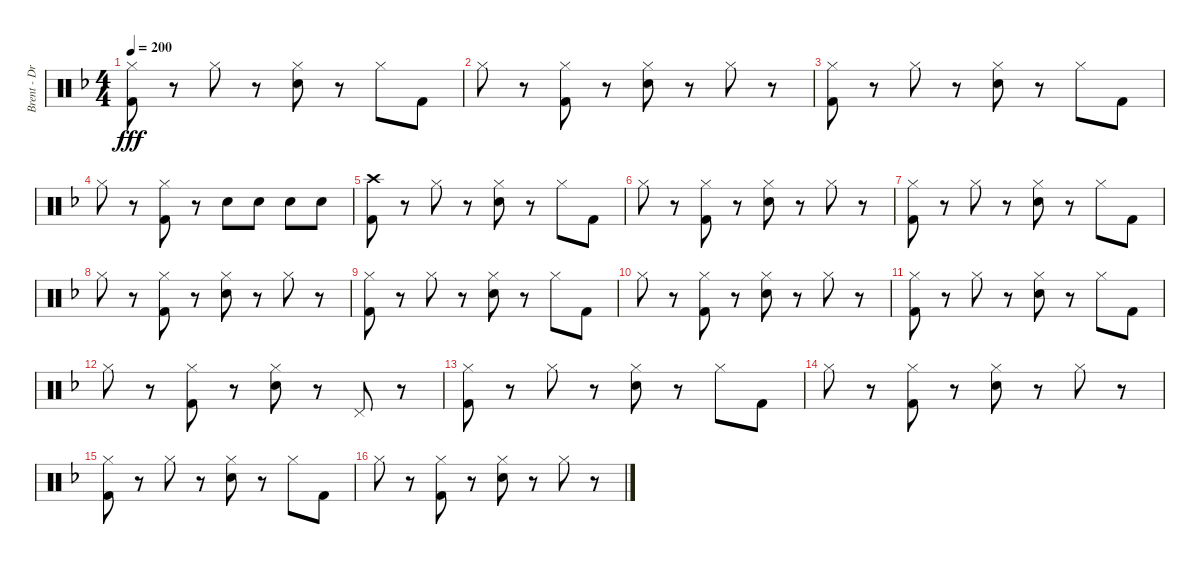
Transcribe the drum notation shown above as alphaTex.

\track ("Brent - Drums" "Brent - Dr") {instrument percussion}
\staff {score}
\articulation defaults
\ts (4 4)
\tempo 200
\clef neutral
\ks dminor
("Hi-Hat (closed)" "Kick (hit) 2").8{dy fff} r.8 "Hi-Hat (closed)".8 r.8 ("Hi-Hat (closed)" "Snare (hit) 2").8 r.8 "Hi-Hat (closed)".8 "Kick (hit) 2".8 |
"Hi-Hat (closed)".8 r.8 ("Hi-Hat (closed)" "Kick (hit) 2").8 r.8 ("Hi-Hat (closed)" "Snare (hit) 2").8 r.8 "Hi-Hat (closed)".8 r.8 |
("Hi-Hat (closed)" "Kick (hit) 2").8 r.8 "Hi-Hat (closed)".8 r.8 ("Hi-Hat (closed)" "Snare (hit) 2").8 r.8 "Hi-Hat (closed)".8 "Kick (hit) 2".8 |
"Hi-Hat (closed)".8 r.8 ("Hi-Hat (closed)" "Kick (hit) 2").8 r.8 "Snare (hit) 2".8 "Snare (hit) 2".8 "Snare (hit) 2".8 "Snare (hit) 2".8 |
("Crash high (hit)" "Kick (hit) 2").8 r.8 "Hi-Hat (closed)".8 r.8 ("Hi-Hat (closed)" "Snare (hit) 2").8 r.8 "Hi-Hat (closed)".8 "Kick (hit) 2".8 |
"Hi-Hat (closed)".8 r.8 ("Hi-Hat (closed)" "Kick (hit) 2").8 r.8 ("Hi-Hat (closed)" "Snare (hit) 2").8 r.8 "Hi-Hat (closed)".8 r.8 |
("Hi-Hat (closed)" "Kick (hit) 2").8 r.8 "Hi-Hat (closed)".8 r.8 ("Hi-Hat (closed)" "Snare (hit) 2").8 r.8 "Hi-Hat (closed)".8 "Kick (hit) 2".8 |
"Hi-Hat (closed)".8 r.8 ("Hi-Hat (closed)" "Kick (hit) 2").8 r.8 ("Hi-Hat (closed)" "Snare (hit) 2").8 r.8 "Hi-Hat (closed)".8 r.8 |
("Hi-Hat (closed)" "Kick (hit) 2").8 r.8 "Hi-Hat (closed)".8 r.8 ("Hi-Hat (closed)" "Snare (hit) 2").8 r.8 "Hi-Hat (closed)".8 "Kick (hit) 2".8 |
"Hi-Hat (closed)".8 r.8 ("Hi-Hat (closed)" "Kick (hit) 2").8 r.8 ("Hi-Hat (closed)" "Snare (hit) 2").8 r.8 "Hi-Hat (closed)".8 r.8 |
("Hi-Hat (closed)" "Kick (hit) 2").8 r.8 "Hi-Hat (closed)".8 r.8 ("Hi-Hat (closed)" "Snare (hit) 2").8 r.8 "Hi-Hat (closed)".8 "Kick (hit) 2".8 |
"Hi-Hat (closed)".8 r.8 ("Hi-Hat (closed)" "Kick (hit) 2").8 r.8 ("Hi-Hat (closed)" "Snare (hit) 2").8 r.8 "Pedal Hi-Hat (hit)".8 r.8 |
("Hi-Hat (closed)" "Kick (hit) 2").8 r.8 "Hi-Hat (closed)".8 r.8 ("Hi-Hat (closed)" "Snare (hit) 2").8 r.8 "Hi-Hat (closed)".8 "Kick (hit) 2".8 |
"Hi-Hat (closed)".8 r.8 ("Hi-Hat (closed)" "Kick (hit) 2").8 r.8 ("Hi-Hat (closed)" "Snare (hit) 2").8 r.8 "Hi-Hat (closed)".8 r.8 |
("Hi-Hat (closed)" "Kick (hit) 2").8 r.8 "Hi-Hat (closed)".8 r.8 ("Hi-Hat (closed)" "Snare (hit) 2").8 r.8 "Hi-Hat (closed)".8 "Kick (hit) 2".8 |
"Hi-Hat (closed)".8 r.8 ("Hi-Hat (closed)" "Kick (hit) 2").8 r.8 ("Hi-Hat (closed)" "Snare (hit) 2").8 r.8 "Hi-Hat (closed)".8 r.8
